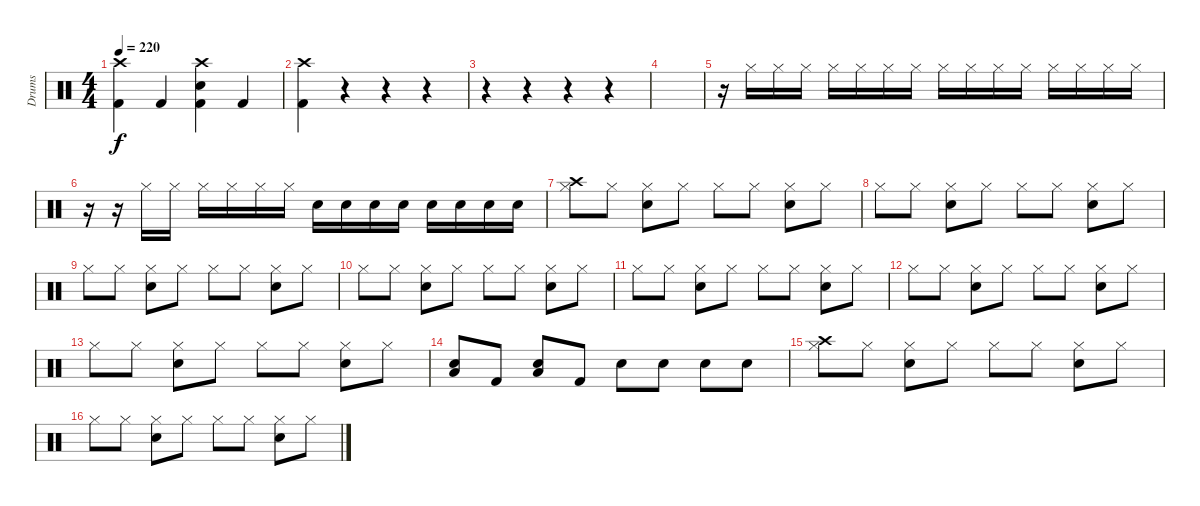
\track ("Drums" "Drums") {instrument percussion}
\staff {score}
\articulation defaults
\ts (4 4)
\tempo 220
\clef neutral
\ks c
("Crash high (hit)" "Kick (hit) 2").4{dy f} "Kick (hit) 2".4 ("Crash high (hit)" "Snare (hit) 2" "Kick (hit) 2").4 "Kick (hit) 2".4 |
("Crash high (hit)" "Kick (hit) 2").4 r.4 r.4 r.4 |
r.4 r.4 r.4 r.4 |
|
r.16 "Hi-Hat (closed)".16 "Hi-Hat (closed)".16 "Hi-Hat (closed)".16 "Hi-Hat (closed)".16 "Hi-Hat (closed)".16 "Hi-Hat (closed)".16 "Hi-Hat (closed)".16 "Hi-Hat (closed)".16 "Hi-Hat (closed)".16 "Hi-Hat (closed)".16 "Hi-Hat (closed)".16 "Hi-Hat (closed)".16 "Hi-Hat (closed)".16 "Hi-Hat (closed)".16 "Hi-Hat (closed)".16 |
r.16 r.16 "Hi-Hat (closed)".16 "Hi-Hat (closed)".16 "Hi-Hat (closed)".16 "Hi-Hat (closed)".16 "Hi-Hat (closed)".16 "Hi-Hat (closed)".16 "Snare (hit) 2".16 "Snare (hit) 2".16 "Snare (hit) 2".16 "Snare (hit) 2".16 "Snare (hit) 2".16 "Snare (hit) 2".16 "Snare (hit) 2".16 "Snare (hit) 2".16 |
("Crash high (hit)" "Hi-Hat (closed)").8 "Hi-Hat (closed)".8 ("Hi-Hat (closed)" "Snare (hit) 2").8 "Hi-Hat (closed)".8 "Hi-Hat (closed)".8 "Hi-Hat (closed)".8 ("Hi-Hat (closed)" "Snare (hit) 2").8 "Hi-Hat (closed)".8 |
"Hi-Hat (closed)".8 "Hi-Hat (closed)".8 ("Hi-Hat (closed)" "Snare (hit) 2").8 "Hi-Hat (closed)".8 "Hi-Hat (closed)".8 "Hi-Hat (closed)".8 ("Hi-Hat (closed)" "Snare (hit) 2").8 "Hi-Hat (closed)".8 |
"Hi-Hat (closed)".8 "Hi-Hat (closed)".8 ("Hi-Hat (closed)" "Snare (hit) 2").8 "Hi-Hat (closed)".8 "Hi-Hat (closed)".8 "Hi-Hat (closed)".8 ("Hi-Hat (closed)" "Snare (hit) 2").8 "Hi-Hat (closed)".8 |
"Hi-Hat (closed)".8 "Hi-Hat (closed)".8 ("Hi-Hat (closed)" "Snare (hit) 2").8 "Hi-Hat (closed)".8 "Hi-Hat (closed)".8 "Hi-Hat (closed)".8 ("Hi-Hat (closed)" "Snare (hit) 2").8 "Hi-Hat (closed)".8 |
"Hi-Hat (closed)".8 "Hi-Hat (closed)".8 ("Hi-Hat (closed)" "Snare (hit) 2").8 "Hi-Hat (closed)".8 "Hi-Hat (closed)".8 "Hi-Hat (closed)".8 ("Hi-Hat (closed)" "Snare (hit) 2").8 "Hi-Hat (closed)".8 |
"Hi-Hat (closed)".8 "Hi-Hat (closed)".8 ("Hi-Hat (closed)" "Snare (hit) 2").8 "Hi-Hat (closed)".8 "Hi-Hat (closed)".8 "Hi-Hat (closed)".8 ("Hi-Hat (closed)" "Snare (hit) 2").8 "Hi-Hat (closed)".8 |
"Hi-Hat (closed)".8 "Hi-Hat (closed)".8 ("Hi-Hat (closed)" "Snare (hit) 2").8 "Hi-Hat (closed)".8 "Hi-Hat (closed)".8 "Hi-Hat (closed)".8 ("Hi-Hat (closed)" "Snare (hit) 2").8 "Hi-Hat (closed)".8 |
("Low Floor Tom (hit)" "Snare (hit) 2").8 "Kick (hit) 2".8 ("Low Floor Tom (hit)" "Snare (hit) 2").8 "Kick (hit) 2".8 "Snare (hit) 2".8 "Snare (hit) 2".8 "Snare (hit) 2".8 "Snare (hit) 2".8 |
("Crash high (hit)" "Hi-Hat (closed)").8 "Hi-Hat (closed)".8 ("Hi-Hat (closed)" "Snare (hit) 2").8 "Hi-Hat (closed)".8 "Hi-Hat (closed)".8 "Hi-Hat (closed)".8 ("Hi-Hat (closed)" "Snare (hit) 2").8 "Hi-Hat (closed)".8 |
"Hi-Hat (closed)".8 "Hi-Hat (closed)".8 ("Hi-Hat (closed)" "Snare (hit) 2").8 "Hi-Hat (closed)".8 "Hi-Hat (closed)".8 "Hi-Hat (closed)".8 ("Hi-Hat (closed)" "Snare (hit) 2").8 "Hi-Hat (closed)".8
